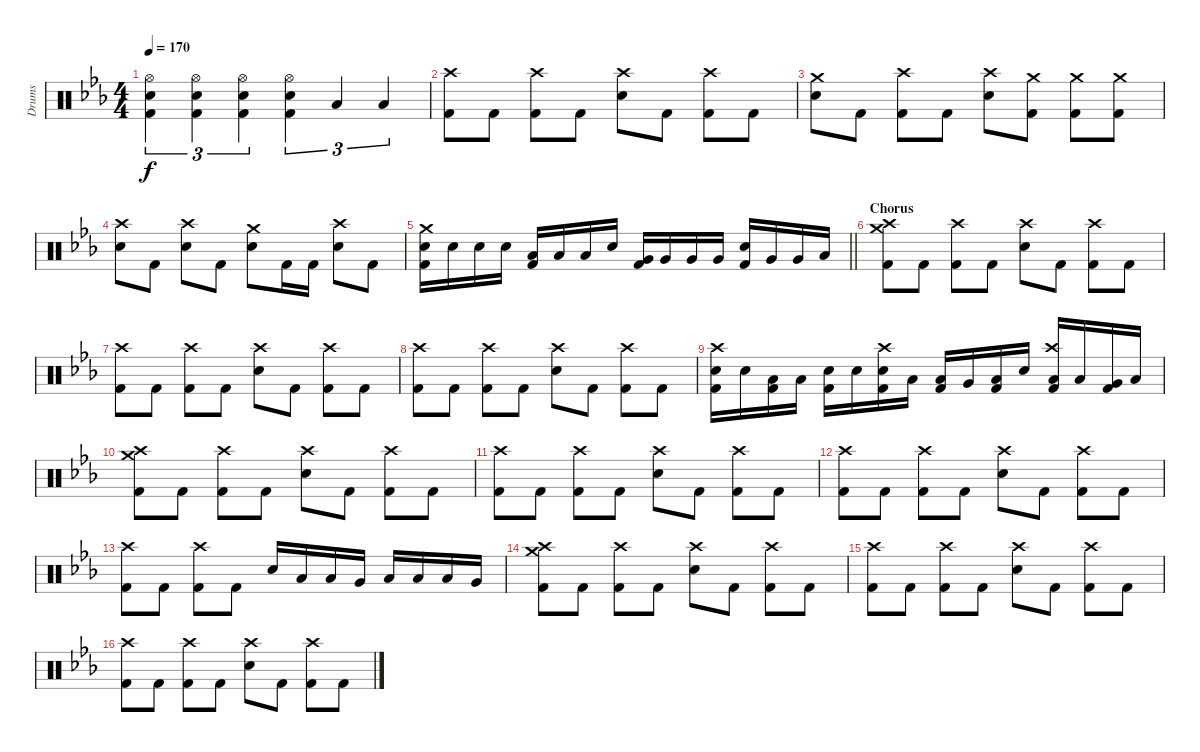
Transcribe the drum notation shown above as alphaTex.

\track ("Drums" "Drums") {instrument percussion}
\staff {score}
\articulation defaults
\ts (4 4)
\tempo 170
\clef neutral
\ks cminor
("Hi-Hat (open)" "Electric Snare (hit)" "Kick (hit) 2").4{tu (3 2) dy f} ("Hi-Hat (open)" "Electric Snare (hit)" "Kick (hit) 2").4{tu (3 2)} ("Hi-Hat (open)" "Electric Snare (hit)" "Kick (hit) 2").4{tu (3 2)} ("Hi-Hat (open)" "Electric Snare (hit)" "Kick (hit) 2").4{tu (3 2)} "Low Floor Tom (hit)".4{tu (3 2)} "Low Floor Tom (hit)".4{tu (3 2)} |
("Crash high (hit)" "Kick (hit) 2").8 "Kick (hit) 2".8 ("Crash high (hit)" "Kick (hit) 2").8 "Kick (hit) 2".8 ("Crash high (hit)" "Electric Snare (hit)").8 "Kick (hit) 2".8 ("Crash high (hit)" "Kick (hit) 2").8 "Kick (hit) 2".8 |
("Crash medium (hit)" "Electric Snare (hit)").8 "Kick (hit) 2".8 ("Crash high (hit)" "Kick (hit) 2").8 "Kick (hit) 2".8 ("Crash high (hit)" "Electric Snare (hit)").8 ("Crash medium (hit)" "Kick (hit) 2").8 ("Crash medium (hit)" "Kick (hit) 2").8 ("Crash medium (hit)" "Kick (hit) 2").8 |
("Crash high (hit)" "Electric Snare (hit)").8 "Kick (hit) 2".8 ("Crash high (hit)" "Electric Snare (hit)").8 "Kick (hit) 2".8 ("Crash medium (hit)" "Electric Snare (hit)").8 "Kick (hit) 2".16 "Kick (hit) 2".16 ("Crash high (hit)" "Electric Snare (hit)").8 "Kick (hit) 2".8 |
\barLineRight lightlight
("Crash medium (hit)" "Electric Snare (hit)" "Kick (hit) 2").16 "Electric Snare (hit)".16 "Electric Snare (hit)".16 "Electric Snare (hit)".16 ("Low Tom (hit)" "Kick (hit) 2").16 "Low Tom (hit)".16 "Low Tom (hit)".16 "Electric Snare (hit)".16 ("Very Low Tom (hit)" "Kick (hit) 2").16 "Very Low Tom (hit)".16 "Very Low Tom (hit)".16 "Very Low Tom (hit)".16 ("Electric Snare (hit)" "Kick (hit) 2").16 "Very Low Tom (hit)".16 "Very Low Tom (hit)".16 "Low Floor Tom (hit)".16 |
\section ("" "Chorus")
("Crash high (hit)" "Crash medium (hit)" "Kick (hit) 2").8 "Kick (hit) 2".8 ("Crash high (hit)" "Kick (hit) 2").8 "Kick (hit) 2".8 ("Crash high (hit)" "Electric Snare (hit)").8 "Kick (hit) 2".8 ("Crash high (hit)" "Kick (hit) 2").8 "Kick (hit) 2".8 |
("Crash high (hit)" "Kick (hit) 2").8 "Kick (hit) 2".8 ("Crash high (hit)" "Kick (hit) 2").8 "Kick (hit) 2".8 ("Crash high (hit)" "Electric Snare (hit)").8 "Kick (hit) 2".8 ("Crash high (hit)" "Kick (hit) 2").8 "Kick (hit) 2".8 |
("Crash high (hit)" "Kick (hit) 2").8 "Kick (hit) 2".8 ("Crash high (hit)" "Kick (hit) 2").8 "Kick (hit) 2".8 ("Crash high (hit)" "Electric Snare (hit)").8 "Kick (hit) 2".8 ("Crash high (hit)" "Kick (hit) 2").8 "Kick (hit) 2".8 |
("Crash high (hit)" "Electric Snare (hit)" "Kick (hit) 2").16 "Electric Snare (hit)".16 ("Low Tom (hit)" "Kick (hit) 2").16 "Low Tom (hit)".16 ("Electric Snare (hit)" "Kick (hit) 2").16 "Electric Snare (hit)".16 ("Crash high (hit)" "Electric Snare (hit)" "Kick (hit) 2").16 "Low Tom (hit)".16 ("Low Tom (hit)" "Kick (hit) 2").16 "Very Low Tom (hit)".16 ("Low Floor Tom (hit)" "Kick (hit) 2").16 "Electric Snare (hit)".16 ("Crash high (hit)" "Low Tom (hit)" "Kick (hit) 2").16 "Low Tom (hit)".16 ("Very Low Tom (hit)" "Kick (hit) 2").16 "Low Floor Tom (hit)".16 |
("Crash high (hit)" "Crash medium (hit)" "Kick (hit) 2").8 "Kick (hit) 2".8 ("Crash high (hit)" "Kick (hit) 2").8 "Kick (hit) 2".8 ("Crash high (hit)" "Electric Snare (hit)").8 "Kick (hit) 2".8 ("Crash high (hit)" "Kick (hit) 2").8 "Kick (hit) 2".8 |
("Crash high (hit)" "Kick (hit) 2").8 "Kick (hit) 2".8 ("Crash high (hit)" "Kick (hit) 2").8 "Kick (hit) 2".8 ("Crash high (hit)" "Electric Snare (hit)").8 "Kick (hit) 2".8 ("Crash high (hit)" "Kick (hit) 2").8 "Kick (hit) 2".8 |
("Crash high (hit)" "Kick (hit) 2").8 "Kick (hit) 2".8 ("Crash high (hit)" "Kick (hit) 2").8 "Kick (hit) 2".8 ("Crash high (hit)" "Electric Snare (hit)").8 "Kick (hit) 2".8 ("Crash high (hit)" "Kick (hit) 2").8 "Kick (hit) 2".8 |
("Crash high (hit)" "Kick (hit) 2").8 "Kick (hit) 2".8 ("Crash high (hit)" "Kick (hit) 2").8 "Kick (hit) 2".8 "Electric Snare (hit)".16 "Low Tom (hit)".16 "Low Tom (hit)".16 "Very Low Tom (hit)".16 "Low Floor Tom (hit)".16 "Low Tom (hit)".16 "Low Tom (hit)".16 "Very Low Tom (hit)".16 |
("Crash high (hit)" "Crash medium (hit)" "Kick (hit) 2").8 "Kick (hit) 2".8 ("Crash high (hit)" "Kick (hit) 2").8 "Kick (hit) 2".8 ("Crash high (hit)" "Electric Snare (hit)").8 "Kick (hit) 2".8 ("Crash high (hit)" "Kick (hit) 2").8 "Kick (hit) 2".8 |
("Crash high (hit)" "Kick (hit) 2").8 "Kick (hit) 2".8 ("Crash high (hit)" "Kick (hit) 2").8 "Kick (hit) 2".8 ("Crash high (hit)" "Electric Snare (hit)").8 "Kick (hit) 2".8 ("Crash high (hit)" "Kick (hit) 2").8 "Kick (hit) 2".8 |
("Crash high (hit)" "Kick (hit) 2").8 "Kick (hit) 2".8 ("Crash high (hit)" "Kick (hit) 2").8 "Kick (hit) 2".8 ("Crash high (hit)" "Electric Snare (hit)").8 "Kick (hit) 2".8 ("Crash high (hit)" "Kick (hit) 2").8 "Kick (hit) 2".8
